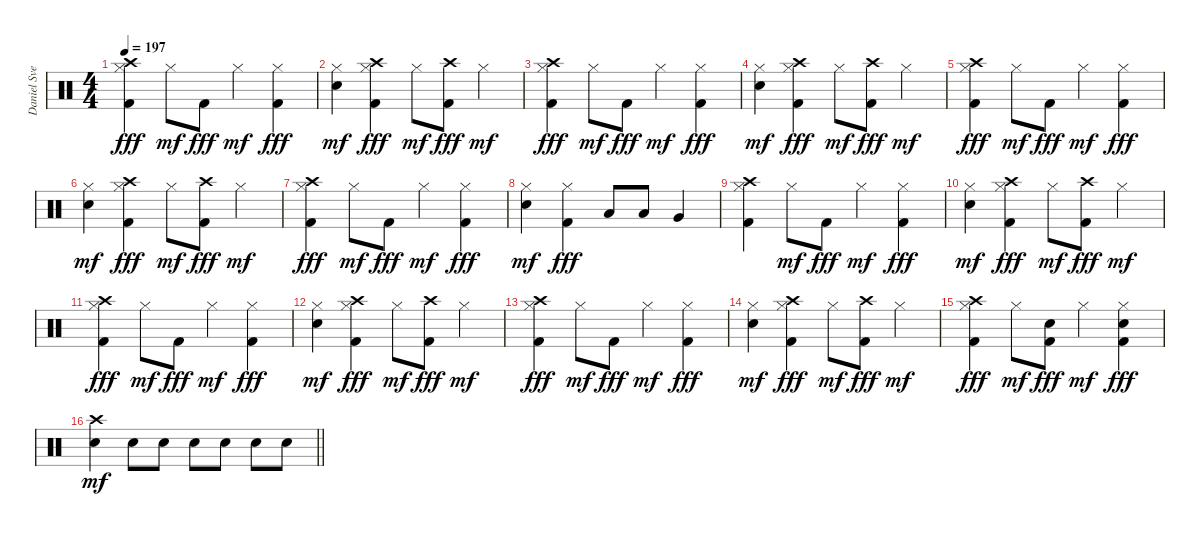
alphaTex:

\track ("Daniel Svensson" "Daniel Sve") {instrument percussion}
\staff {score}
\articulation defaults
\ts (4 4)
\tempo 197
\clef neutral
\ks c
("Crash high (hit)" "Hi-Hat (closed)" "Kick (hit) 2").4{dy fff} "Hi-Hat (closed)".8{dy mf} "Kick (hit) 2".8{dy fff} "Hi-Hat (closed)".4{dy mf} ("Hi-Hat (closed)" "Kick (hit) 2").4{dy fff} |
("Hi-Hat (closed)" "Electric Snare (hit)").4{dy mf} ("Crash high (hit)" "Hi-Hat (closed)" "Kick (hit) 2").4{dy fff} "Hi-Hat (closed)".8{dy mf} ("Crash high (hit)" "Kick (hit) 2").8{dy fff} "Hi-Hat (closed)".4{dy mf} |
("Crash high (hit)" "Hi-Hat (closed)" "Kick (hit) 2").4{dy fff} "Hi-Hat (closed)".8{dy mf} "Kick (hit) 2".8{dy fff} "Hi-Hat (closed)".4{dy mf} ("Hi-Hat (closed)" "Kick (hit) 2").4{dy fff} |
("Hi-Hat (closed)" "Electric Snare (hit)").4{dy mf} ("Crash high (hit)" "Hi-Hat (closed)" "Kick (hit) 2").4{dy fff} "Hi-Hat (closed)".8{dy mf} ("Crash high (hit)" "Kick (hit) 2").8{dy fff} "Hi-Hat (closed)".4{dy mf} |
("Crash high (hit)" "Hi-Hat (closed)" "Kick (hit) 2").4{dy fff} "Hi-Hat (closed)".8{dy mf} "Kick (hit) 2".8{dy fff} "Hi-Hat (closed)".4{dy mf} ("Hi-Hat (closed)" "Kick (hit) 2").4{dy fff} |
("Hi-Hat (closed)" "Electric Snare (hit)").4{dy mf} ("Crash high (hit)" "Hi-Hat (closed)" "Kick (hit) 2").4{dy fff} "Hi-Hat (closed)".8{dy mf} ("Crash high (hit)" "Kick (hit) 2").8{dy fff} "Hi-Hat (closed)".4{dy mf} |
("Crash high (hit)" "Hi-Hat (closed)" "Kick (hit) 2").4{dy fff} "Hi-Hat (closed)".8{dy mf} "Kick (hit) 2".8{dy fff} "Hi-Hat (closed)".4{dy mf} ("Hi-Hat (closed)" "Kick (hit) 2").4{dy fff} |
("Hi-Hat (closed)" "Electric Snare (hit)").4{dy mf} ("Hi-Hat (closed)" "Kick (hit) 2").4{dy fff} "Low Tom (hit)".8 "Low Tom (hit)".8 "Very Low Tom (hit)".4 |
("Crash high (hit)" "Hi-Hat (closed)" "Kick (hit) 2").4 "Hi-Hat (closed)".8{dy mf} "Kick (hit) 2".8{dy fff} "Hi-Hat (closed)".4{dy mf} ("Hi-Hat (closed)" "Kick (hit) 2").4{dy fff} |
("Hi-Hat (closed)" "Electric Snare (hit)").4{dy mf} ("Crash high (hit)" "Hi-Hat (closed)" "Kick (hit) 2").4{dy fff} "Hi-Hat (closed)".8{dy mf} ("Crash high (hit)" "Kick (hit) 2").8{dy fff} "Hi-Hat (closed)".4{dy mf} |
("Crash high (hit)" "Hi-Hat (closed)" "Kick (hit) 2").4{dy fff} "Hi-Hat (closed)".8{dy mf} "Kick (hit) 2".8{dy fff} "Hi-Hat (closed)".4{dy mf} ("Hi-Hat (closed)" "Kick (hit) 2").4{dy fff} |
("Hi-Hat (closed)" "Electric Snare (hit)").4{dy mf} ("Crash high (hit)" "Hi-Hat (closed)" "Kick (hit) 2").4{dy fff} "Hi-Hat (closed)".8{dy mf} ("Crash high (hit)" "Kick (hit) 2").8{dy fff} "Hi-Hat (closed)".4{dy mf} |
("Crash high (hit)" "Hi-Hat (closed)" "Kick (hit) 2").4{dy fff} "Hi-Hat (closed)".8{dy mf} "Kick (hit) 2".8{dy fff} "Hi-Hat (closed)".4{dy mf} ("Hi-Hat (closed)" "Kick (hit) 2").4{dy fff} |
("Hi-Hat (closed)" "Electric Snare (hit)").4{dy mf} ("Crash high (hit)" "Hi-Hat (closed)" "Kick (hit) 2").4{dy fff} "Hi-Hat (closed)".8{dy mf} ("Crash high (hit)" "Kick (hit) 2").8{dy fff} "Hi-Hat (closed)".4{dy mf} |
("Crash high (hit)" "Hi-Hat (closed)" "Kick (hit) 2").4{dy fff} "Hi-Hat (closed)".8{dy mf} ("Electric Snare (hit)" "Kick (hit) 2").8{dy fff} "Hi-Hat (closed)".4{dy mf} ("Hi-Hat (closed)" "Electric Snare (hit)" "Kick (hit) 2").4{dy fff} |
\barLineRight lightlight
("Crash high (hit)" "Electric Snare (hit)").4{dy mf} "Electric Snare (hit)".8 "Electric Snare (hit)".8 "Electric Snare (hit)".8 "Electric Snare (hit)".8 "Electric Snare (hit)".8 "Electric Snare (hit)".8
